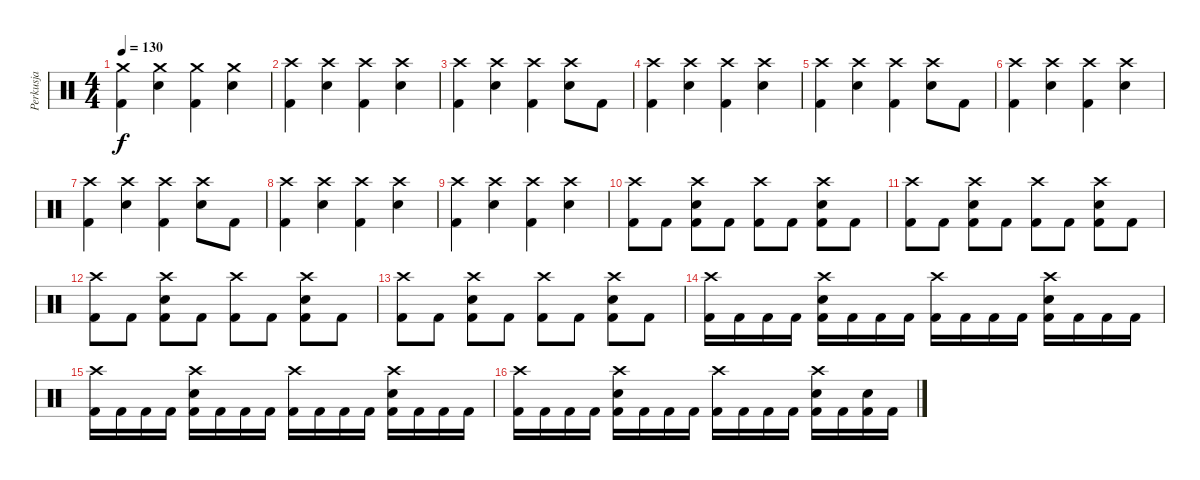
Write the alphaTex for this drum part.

\track ("Perkusja" "Perkusja") {instrument percussion}
\staff {score}
\articulation defaults
\ts (4 4)
\tempo 130
\clef neutral
\ks c
("Crash medium (hit)" "Kick (hit) 2").4{dy f} ("Crash medium (hit)" "Snare (hit) 2").4 ("Crash medium (hit)" "Kick (hit) 2").4 ("Crash medium (hit)" "Snare (hit) 2").4 |
("Crash high (hit)" "Kick (hit) 2").4 ("Crash high (hit)" "Snare (hit) 2").4 ("Crash high (hit)" "Kick (hit) 2").4 ("Crash high (hit)" "Snare (hit) 2").4 |
("Crash high (hit)" "Kick (hit) 2").4 ("Crash high (hit)" "Snare (hit) 2").4 ("Crash high (hit)" "Kick (hit) 2").4 ("Crash high (hit)" "Snare (hit) 2").8 "Kick (hit) 2".8 |
("Crash high (hit)" "Kick (hit) 2").4 ("Crash high (hit)" "Snare (hit) 2").4 ("Crash high (hit)" "Kick (hit) 2").4 ("Crash high (hit)" "Snare (hit) 2").4 |
("Crash high (hit)" "Kick (hit) 2").4 ("Crash high (hit)" "Snare (hit) 2").4 ("Crash high (hit)" "Kick (hit) 2").4 ("Crash high (hit)" "Snare (hit) 2").8 "Kick (hit) 2".8 |
("Crash high (hit)" "Kick (hit) 2").4 ("Crash high (hit)" "Snare (hit) 2").4 ("Crash high (hit)" "Kick (hit) 2").4 ("Crash high (hit)" "Snare (hit) 2").4 |
("Crash high (hit)" "Kick (hit) 2").4 ("Crash high (hit)" "Snare (hit) 2").4 ("Crash high (hit)" "Kick (hit) 2").4 ("Crash high (hit)" "Snare (hit) 2").8 "Kick (hit) 2".8 |
("Crash high (hit)" "Kick (hit) 2").4 ("Crash high (hit)" "Snare (hit) 2").4 ("Crash high (hit)" "Kick (hit) 2").4 ("Crash high (hit)" "Snare (hit) 2").4 |
("Crash high (hit)" "Kick (hit) 2").4 ("Crash high (hit)" "Snare (hit) 2").4 ("Crash high (hit)" "Kick (hit) 2").4 ("Crash high (hit)" "Snare (hit) 2").4 |
("Crash high (hit)" "Kick (hit) 2").8 "Kick (hit) 2".8 ("Crash high (hit)" "Snare (hit) 2" "Kick (hit) 2").8 "Kick (hit) 2".8 ("Crash high (hit)" "Kick (hit) 2").8 "Kick (hit) 2".8 ("Crash high (hit)" "Snare (hit) 2" "Kick (hit) 2").8 "Kick (hit) 2".8 |
("Crash high (hit)" "Kick (hit) 2").8 "Kick (hit) 2".8 ("Crash high (hit)" "Snare (hit) 2" "Kick (hit) 2").8 "Kick (hit) 2".8 ("Crash high (hit)" "Kick (hit) 2").8 "Kick (hit) 2".8 ("Crash high (hit)" "Snare (hit) 2" "Kick (hit) 2").8 "Kick (hit) 2".8 |
("Crash high (hit)" "Kick (hit) 2").8 "Kick (hit) 2".8 ("Crash high (hit)" "Snare (hit) 2" "Kick (hit) 2").8 "Kick (hit) 2".8 ("Crash high (hit)" "Kick (hit) 2").8 "Kick (hit) 2".8 ("Crash high (hit)" "Snare (hit) 2" "Kick (hit) 2").8 "Kick (hit) 2".8 |
("Crash high (hit)" "Kick (hit) 2").8 "Kick (hit) 2".8 ("Crash high (hit)" "Snare (hit) 2" "Kick (hit) 2").8 "Kick (hit) 2".8 ("Crash high (hit)" "Kick (hit) 2").8 "Kick (hit) 2".8 ("Crash high (hit)" "Snare (hit) 2" "Kick (hit) 2").8 "Kick (hit) 2".8 |
("Crash high (hit)" "Kick (hit) 2").16 "Kick (hit) 2".16 "Kick (hit) 2".16 "Kick (hit) 2".16 ("Crash high (hit)" "Snare (hit) 2" "Kick (hit) 2").16 "Kick (hit) 2".16 "Kick (hit) 2".16 "Kick (hit) 2".16 ("Crash high (hit)" "Kick (hit) 2").16 "Kick (hit) 2".16 "Kick (hit) 2".16 "Kick (hit) 2".16 ("Crash high (hit)" "Snare (hit) 2" "Kick (hit) 2").16 "Kick (hit) 2".16 "Kick (hit) 2".16 "Kick (hit) 2".16 |
("Crash high (hit)" "Kick (hit) 2").16 "Kick (hit) 2".16 "Kick (hit) 2".16 "Kick (hit) 2".16 ("Crash high (hit)" "Snare (hit) 2" "Kick (hit) 2").16 "Kick (hit) 2".16 "Kick (hit) 2".16 "Kick (hit) 2".16 ("Crash high (hit)" "Kick (hit) 2").16 "Kick (hit) 2".16 "Kick (hit) 2".16 "Kick (hit) 2".16 ("Crash high (hit)" "Snare (hit) 2" "Kick (hit) 2").16 "Kick (hit) 2".16 "Kick (hit) 2".16 "Kick (hit) 2".16 |
("Crash high (hit)" "Kick (hit) 2").16 "Kick (hit) 2".16 "Kick (hit) 2".16 "Kick (hit) 2".16 ("Crash high (hit)" "Snare (hit) 2" "Kick (hit) 2").16 "Kick (hit) 2".16 "Kick (hit) 2".16 "Kick (hit) 2".16 ("Crash high (hit)" "Kick (hit) 2").16 "Kick (hit) 2".16 "Kick (hit) 2".16 "Kick (hit) 2".16 ("Crash high (hit)" "Snare (hit) 2" "Kick (hit) 2").16 "Kick (hit) 2".16 ("Snare (hit) 2" "Kick (hit) 2").16 "Kick (hit) 2".16
